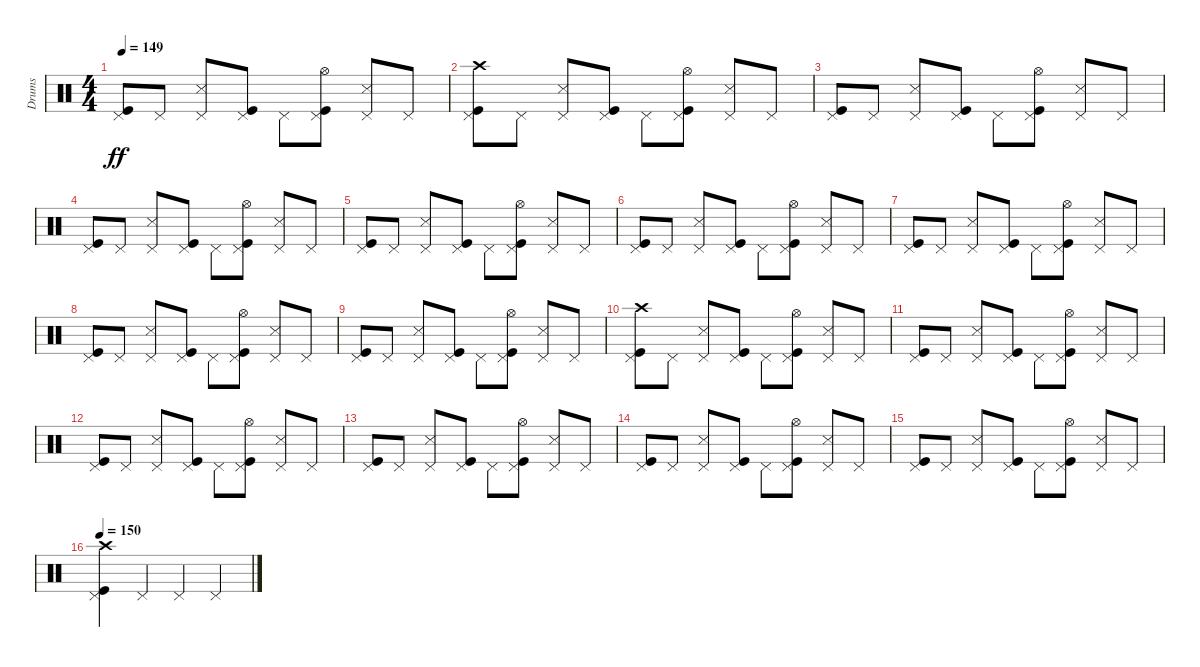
\track ("Drums" "Drums") {instrument percussion}
\staff {score}
\articulation defaults
\ts (4 4)
\tempo 149
\clef neutral
\ks c
("Kick (hit)" "Pedal Hi-Hat (hit)").8{dy ff} "Pedal Hi-Hat (hit)".8 ("Pedal Hi-Hat (hit)" "Metronome (hit)").8 ("Kick (hit)" "Pedal Hi-Hat (hit)").8 "Pedal Hi-Hat (hit)".8 ("Kick (hit)" "Pedal Hi-Hat (hit)" "Hi-Hat (open)").8 ("Pedal Hi-Hat (hit)" "Metronome (hit)").8 "Pedal Hi-Hat (hit)".8 |
("Kick (hit)" "Pedal Hi-Hat (hit)" "Crash high (hit)").8 "Pedal Hi-Hat (hit)".8 ("Pedal Hi-Hat (hit)" "Metronome (hit)").8 ("Kick (hit)" "Pedal Hi-Hat (hit)").8 "Pedal Hi-Hat (hit)".8 ("Kick (hit)" "Pedal Hi-Hat (hit)" "Hi-Hat (open)").8 ("Pedal Hi-Hat (hit)" "Metronome (hit)").8 "Pedal Hi-Hat (hit)".8 |
("Kick (hit)" "Pedal Hi-Hat (hit)").8 "Pedal Hi-Hat (hit)".8 ("Pedal Hi-Hat (hit)" "Metronome (hit)").8 ("Kick (hit)" "Pedal Hi-Hat (hit)").8 "Pedal Hi-Hat (hit)".8 ("Kick (hit)" "Pedal Hi-Hat (hit)" "Hi-Hat (open)").8 ("Pedal Hi-Hat (hit)" "Metronome (hit)").8 "Pedal Hi-Hat (hit)".8 |
("Kick (hit)" "Pedal Hi-Hat (hit)").8 "Pedal Hi-Hat (hit)".8 ("Pedal Hi-Hat (hit)" "Metronome (hit)").8 ("Kick (hit)" "Pedal Hi-Hat (hit)").8 "Pedal Hi-Hat (hit)".8 ("Kick (hit)" "Pedal Hi-Hat (hit)" "Hi-Hat (open)").8 ("Pedal Hi-Hat (hit)" "Metronome (hit)").8 "Pedal Hi-Hat (hit)".8 |
("Kick (hit)" "Pedal Hi-Hat (hit)").8 "Pedal Hi-Hat (hit)".8 ("Pedal Hi-Hat (hit)" "Metronome (hit)").8 ("Kick (hit)" "Pedal Hi-Hat (hit)").8 "Pedal Hi-Hat (hit)".8 ("Kick (hit)" "Pedal Hi-Hat (hit)" "Hi-Hat (open)").8 ("Pedal Hi-Hat (hit)" "Metronome (hit)").8 "Pedal Hi-Hat (hit)".8 |
("Kick (hit)" "Pedal Hi-Hat (hit)").8 "Pedal Hi-Hat (hit)".8 ("Pedal Hi-Hat (hit)" "Metronome (hit)").8 ("Kick (hit)" "Pedal Hi-Hat (hit)").8 "Pedal Hi-Hat (hit)".8 ("Kick (hit)" "Pedal Hi-Hat (hit)" "Hi-Hat (open)").8 ("Pedal Hi-Hat (hit)" "Metronome (hit)").8 "Pedal Hi-Hat (hit)".8 |
("Kick (hit)" "Pedal Hi-Hat (hit)").8 "Pedal Hi-Hat (hit)".8 ("Pedal Hi-Hat (hit)" "Metronome (hit)").8 ("Kick (hit)" "Pedal Hi-Hat (hit)").8 "Pedal Hi-Hat (hit)".8 ("Kick (hit)" "Pedal Hi-Hat (hit)" "Hi-Hat (open)").8 ("Pedal Hi-Hat (hit)" "Metronome (hit)").8 "Pedal Hi-Hat (hit)".8 |
("Kick (hit)" "Pedal Hi-Hat (hit)").8 "Pedal Hi-Hat (hit)".8 ("Pedal Hi-Hat (hit)" "Metronome (hit)").8 ("Kick (hit)" "Pedal Hi-Hat (hit)").8 "Pedal Hi-Hat (hit)".8 ("Kick (hit)" "Pedal Hi-Hat (hit)" "Hi-Hat (open)").8 ("Pedal Hi-Hat (hit)" "Metronome (hit)").8 "Pedal Hi-Hat (hit)".8 |
("Kick (hit)" "Pedal Hi-Hat (hit)").8 "Pedal Hi-Hat (hit)".8 ("Pedal Hi-Hat (hit)" "Metronome (hit)").8 ("Kick (hit)" "Pedal Hi-Hat (hit)").8 "Pedal Hi-Hat (hit)".8 ("Kick (hit)" "Pedal Hi-Hat (hit)" "Hi-Hat (open)").8 ("Pedal Hi-Hat (hit)" "Metronome (hit)").8 "Pedal Hi-Hat (hit)".8 |
("Kick (hit)" "Pedal Hi-Hat (hit)" "Crash high (hit)").8 "Pedal Hi-Hat (hit)".8 ("Pedal Hi-Hat (hit)" "Metronome (hit)").8 ("Kick (hit)" "Pedal Hi-Hat (hit)").8 "Pedal Hi-Hat (hit)".8 ("Kick (hit)" "Pedal Hi-Hat (hit)" "Hi-Hat (open)").8 ("Pedal Hi-Hat (hit)" "Metronome (hit)").8 "Pedal Hi-Hat (hit)".8 |
("Kick (hit)" "Pedal Hi-Hat (hit)").8 "Pedal Hi-Hat (hit)".8 ("Pedal Hi-Hat (hit)" "Metronome (hit)").8 ("Kick (hit)" "Pedal Hi-Hat (hit)").8 "Pedal Hi-Hat (hit)".8 ("Kick (hit)" "Pedal Hi-Hat (hit)" "Hi-Hat (open)").8 ("Pedal Hi-Hat (hit)" "Metronome (hit)").8 "Pedal Hi-Hat (hit)".8 |
("Kick (hit)" "Pedal Hi-Hat (hit)").8 "Pedal Hi-Hat (hit)".8 ("Pedal Hi-Hat (hit)" "Metronome (hit)").8 ("Kick (hit)" "Pedal Hi-Hat (hit)").8 "Pedal Hi-Hat (hit)".8 ("Kick (hit)" "Pedal Hi-Hat (hit)" "Hi-Hat (open)").8 ("Pedal Hi-Hat (hit)" "Metronome (hit)").8 "Pedal Hi-Hat (hit)".8 |
("Kick (hit)" "Pedal Hi-Hat (hit)").8 "Pedal Hi-Hat (hit)".8 ("Pedal Hi-Hat (hit)" "Metronome (hit)").8 ("Kick (hit)" "Pedal Hi-Hat (hit)").8 "Pedal Hi-Hat (hit)".8 ("Kick (hit)" "Pedal Hi-Hat (hit)" "Hi-Hat (open)").8 ("Pedal Hi-Hat (hit)" "Metronome (hit)").8 "Pedal Hi-Hat (hit)".8 |
("Kick (hit)" "Pedal Hi-Hat (hit)").8 "Pedal Hi-Hat (hit)".8 ("Pedal Hi-Hat (hit)" "Metronome (hit)").8 ("Kick (hit)" "Pedal Hi-Hat (hit)").8 "Pedal Hi-Hat (hit)".8 ("Kick (hit)" "Pedal Hi-Hat (hit)" "Hi-Hat (open)").8 ("Pedal Hi-Hat (hit)" "Metronome (hit)").8 "Pedal Hi-Hat (hit)".8 |
("Kick (hit)" "Pedal Hi-Hat (hit)").8 "Pedal Hi-Hat (hit)".8 ("Pedal Hi-Hat (hit)" "Metronome (hit)").8 ("Kick (hit)" "Pedal Hi-Hat (hit)").8 "Pedal Hi-Hat (hit)".8 ("Kick (hit)" "Pedal Hi-Hat (hit)" "Hi-Hat (open)").8 ("Pedal Hi-Hat (hit)" "Metronome (hit)").8 "Pedal Hi-Hat (hit)".8 |
\tempo 150
("Kick (hit)" "Pedal Hi-Hat (hit)" "Crash high (hit)").4 "Pedal Hi-Hat (hit)".4 "Pedal Hi-Hat (hit)".4 "Pedal Hi-Hat (hit)".4
